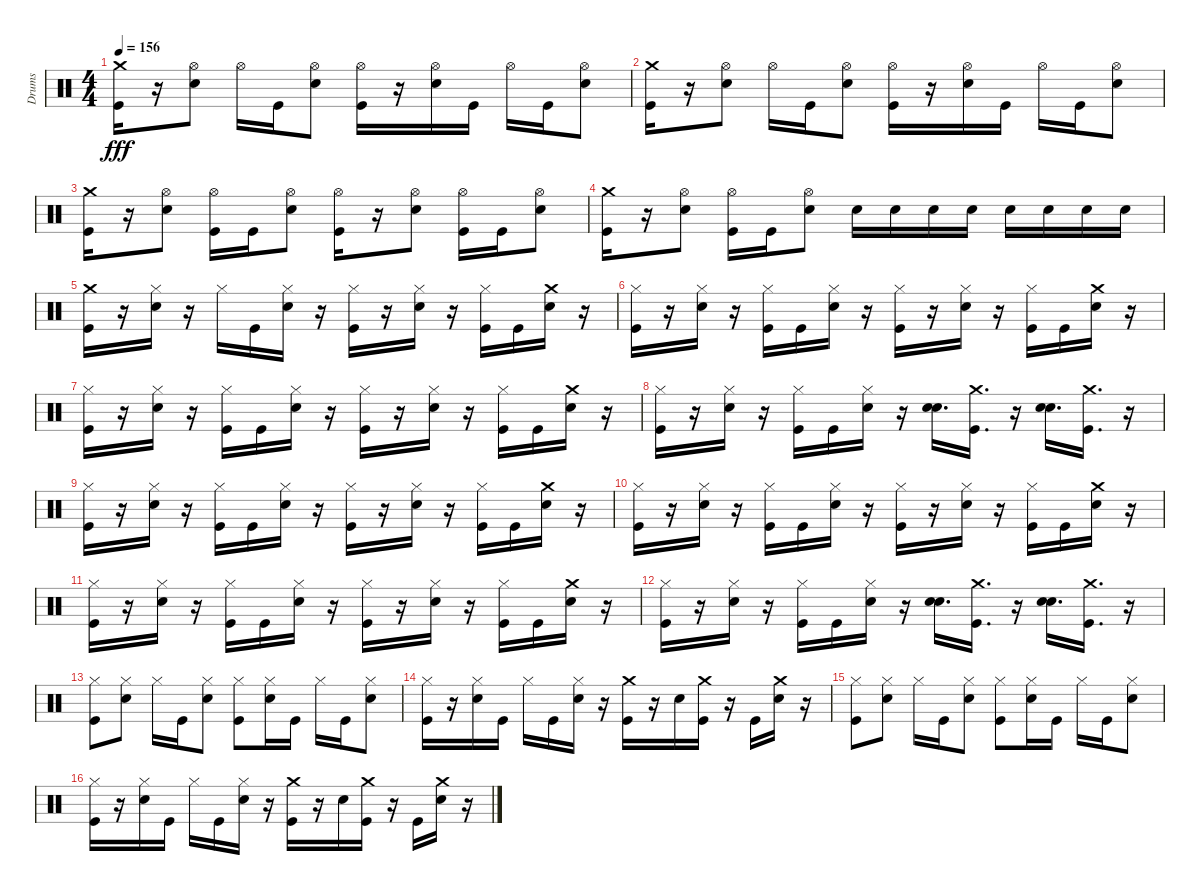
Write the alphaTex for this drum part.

\track ("Drums" "Drums") {instrument percussion}
\staff {score}
\articulation defaults
\ts (4 4)
\tempo 156
\clef neutral
\ks c
("Kick (hit)" "Crash medium (hit)").16{dy fff} r.16 ("Snare (hit) 2" "Hi-Hat (open)").8 "Hi-Hat (open)".16 "Kick (hit)".16 ("Snare (hit) 2" "Hi-Hat (open)").8 ("Kick (hit)" "Hi-Hat (open)").16 r.16 ("Snare (hit) 2" "Hi-Hat (open)").16 "Kick (hit)".16 "Hi-Hat (open)".16 "Kick (hit)".16 ("Snare (hit) 2" "Hi-Hat (open)").8 |
("Kick (hit)" "Crash medium (hit)").16 r.16 ("Snare (hit) 2" "Hi-Hat (open)").8 "Hi-Hat (open)".16 "Kick (hit)".16 ("Snare (hit) 2" "Hi-Hat (open)").8 ("Kick (hit)" "Hi-Hat (open)").16 r.16 ("Snare (hit) 2" "Hi-Hat (open)").16 "Kick (hit)".16 "Hi-Hat (open)".16 "Kick (hit)".16 ("Snare (hit) 2" "Hi-Hat (open)").8 |
("Kick (hit)" "Crash medium (hit)").16 r.16 ("Snare (hit) 2" "Hi-Hat (open)").8 ("Kick (hit)" "Hi-Hat (open)").16 "Kick (hit)".16 ("Snare (hit) 2" "Hi-Hat (open)").8 ("Kick (hit)" "Hi-Hat (open)").16 r.16 ("Snare (hit) 2" "Hi-Hat (open)").8 ("Kick (hit)" "Hi-Hat (open)").16 "Kick (hit)".16 ("Snare (hit) 2" "Hi-Hat (open)").8 |
("Kick (hit)" "Crash medium (hit)").16 r.16 ("Snare (hit) 2" "Hi-Hat (open)").8 ("Kick (hit)" "Hi-Hat (open)").16 "Kick (hit)".16 ("Snare (hit) 2" "Hi-Hat (open)").8 "Snare (hit) 2".16 "Snare (hit) 2".16 "Snare (hit) 2".16 "Snare (hit) 2".16 "Snare (hit) 2".16 "Snare (hit) 2".16 "Snare (hit) 2".16 "Snare (hit) 2".16 |
("Crash medium (hit)" "Kick (hit)").16 r.16 ("Snare (hit) 2" "Hi-Hat (closed)").16 r.16 "Hi-Hat (closed)".16 "Kick (hit)".16 ("Snare (hit) 2" "Hi-Hat (closed)").16 r.16 ("Hi-Hat (closed)" "Kick (hit)").16 r.16 ("Snare (hit) 2" "Hi-Hat (closed)").16 r.16 ("Hi-Hat (closed)" "Kick (hit)").16 "Kick (hit)".16 ("Crash medium (hit)" "Snare (hit) 2").16 r.16 |
("Hi-Hat (closed)" "Kick (hit)").16 r.16 ("Hi-Hat (closed)" "Snare (hit) 2").16 r.16 ("Hi-Hat (closed)" "Kick (hit)").16 "Kick (hit)".16 ("Hi-Hat (closed)" "Snare (hit) 2").16 r.16 ("Hi-Hat (closed)" "Kick (hit)").16 r.16 ("Hi-Hat (closed)" "Snare (hit) 2").16 r.16 ("Hi-Hat (closed)" "Kick (hit)").16 "Kick (hit)".16 ("Crash medium (hit)" "Snare (hit) 2").16 r.16 |
("Hi-Hat (closed)" "Kick (hit)").16 r.16 ("Hi-Hat (closed)" "Snare (hit) 2").16 r.16 ("Hi-Hat (closed)" "Kick (hit)").16 "Kick (hit)".16 ("Hi-Hat (closed)" "Snare (hit) 2").16 r.16 ("Hi-Hat (closed)" "Kick (hit)").16 r.16 ("Hi-Hat (closed)" "Snare (hit) 2").16 r.16 ("Hi-Hat (closed)" "Kick (hit)").16 "Kick (hit)".16 ("Crash medium (hit)" "Snare (hit) 2").16 r.16 |
("Hi-Hat (closed)" "Kick (hit)").16 r.16 ("Hi-Hat (closed)" "Snare (hit) 2").16 r.16 ("Hi-Hat (closed)" "Kick (hit)").16 "Kick (hit)".16 ("Hi-Hat (closed)" "Snare (hit) 2").16 r.16 ("Snare (hit) 2" "Snare (hit) 2").16{d} ("Crash medium (hit)" "Kick (hit)").16{d} r.16 ("Snare (hit) 2" "Snare (hit) 2").16{d} ("Crash medium (hit)" "Kick (hit)").16{d} r.16 |
("Hi-Hat (closed)" "Kick (hit)").16 r.16 ("Hi-Hat (closed)" "Snare (hit) 2").16 r.16 ("Hi-Hat (closed)" "Kick (hit)").16 "Kick (hit)".16 ("Hi-Hat (closed)" "Snare (hit) 2").16 r.16 ("Hi-Hat (closed)" "Kick (hit)").16 r.16 ("Hi-Hat (closed)" "Snare (hit) 2").16 r.16 ("Hi-Hat (closed)" "Kick (hit)").16 "Kick (hit)".16 ("Crash medium (hit)" "Snare (hit) 2").16 r.16 |
("Hi-Hat (closed)" "Kick (hit)").16 r.16 ("Hi-Hat (closed)" "Snare (hit) 2").16 r.16 ("Hi-Hat (closed)" "Kick (hit)").16 "Kick (hit)".16 ("Hi-Hat (closed)" "Snare (hit) 2").16 r.16 ("Hi-Hat (closed)" "Kick (hit)").16 r.16 ("Hi-Hat (closed)" "Snare (hit) 2").16 r.16 ("Hi-Hat (closed)" "Kick (hit)").16 "Kick (hit)".16 ("Crash medium (hit)" "Snare (hit) 2").16 r.16 |
("Hi-Hat (closed)" "Kick (hit)").16 r.16 ("Hi-Hat (closed)" "Snare (hit) 2").16 r.16 ("Hi-Hat (closed)" "Kick (hit)").16 "Kick (hit)".16 ("Hi-Hat (closed)" "Snare (hit) 2").16 r.16 ("Hi-Hat (closed)" "Kick (hit)").16 r.16 ("Hi-Hat (closed)" "Snare (hit) 2").16 r.16 ("Hi-Hat (closed)" "Kick (hit)").16 "Kick (hit)".16 ("Crash medium (hit)" "Snare (hit) 2").16 r.16 |
("Hi-Hat (closed)" "Kick (hit)").16 r.16 ("Hi-Hat (closed)" "Snare (hit) 2").16 r.16 ("Hi-Hat (closed)" "Kick (hit)").16 "Kick (hit)".16 ("Hi-Hat (closed)" "Snare (hit) 2").16 r.16 ("Snare (hit) 2" "Snare (hit) 2").16{d} ("Crash medium (hit)" "Kick (hit)").16{d} r.16 ("Snare (hit) 2" "Snare (hit) 2").16{d} ("Crash medium (hit)" "Kick (hit)").16{d} r.16 |
("Hi-Hat (closed)" "Kick (hit)").8 ("Snare (hit) 2" "Hi-Hat (closed)").8 "Hi-Hat (closed)".16 "Kick (hit)".16 ("Snare (hit) 2" "Hi-Hat (closed)").8 ("Kick (hit)" "Hi-Hat (closed)").8 ("Snare (hit) 2" "Hi-Hat (closed)").16 "Kick (hit)".16 "Hi-Hat (closed)".16 "Kick (hit)".16 ("Snare (hit) 2" "Hi-Hat (closed)").8 |
("Hi-Hat (closed)" "Kick (hit)").16 r.16 ("Hi-Hat (closed)" "Snare (hit) 2").16 "Kick (hit)".16 "Hi-Hat (closed)".16 "Kick (hit)".16 ("Hi-Hat (closed)" "Snare (hit) 2").16 r.16 ("Crash medium (hit)" "Kick (hit)").16 r.16 "Snare (hit) 2".16 ("Crash medium (hit)" "Kick (hit)").16 r.16 "Kick (hit)".16 ("Crash medium (hit)" "Snare (hit) 2").16 r.16 |
("Hi-Hat (closed)" "Kick (hit)").8 ("Snare (hit) 2" "Hi-Hat (closed)").8 "Hi-Hat (closed)".16 "Kick (hit)".16 ("Snare (hit) 2" "Hi-Hat (closed)").8 ("Kick (hit)" "Hi-Hat (closed)").8 ("Snare (hit) 2" "Hi-Hat (closed)").16 "Kick (hit)".16 "Hi-Hat (closed)".16 "Kick (hit)".16 ("Snare (hit) 2" "Hi-Hat (closed)").8 |
("Hi-Hat (closed)" "Kick (hit)").16 r.16 ("Hi-Hat (closed)" "Snare (hit) 2").16 "Kick (hit)".16 "Hi-Hat (closed)".16 "Kick (hit)".16 ("Hi-Hat (closed)" "Snare (hit) 2").16 r.16 ("Crash medium (hit)" "Kick (hit)").16 r.16 "Snare (hit) 2".16 ("Crash medium (hit)" "Kick (hit)").16 r.16 "Kick (hit)".16 ("Crash medium (hit)" "Snare (hit) 2").16 r.16
